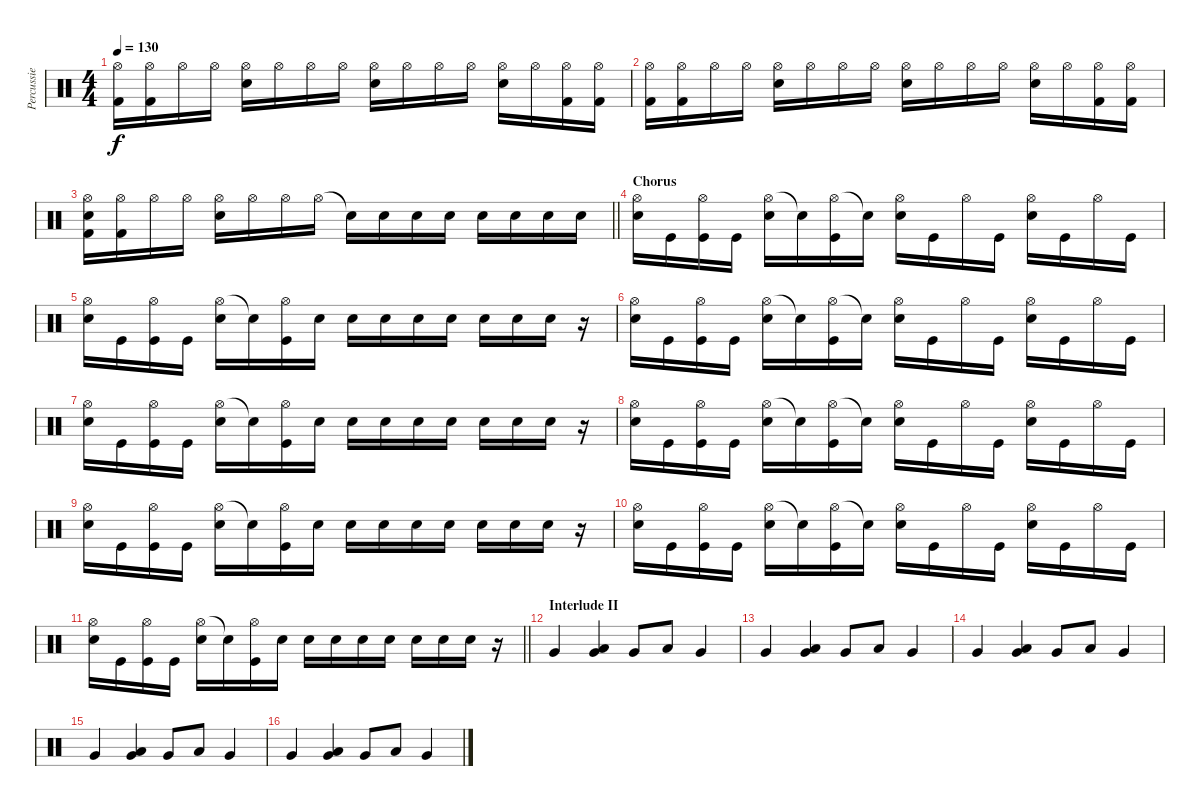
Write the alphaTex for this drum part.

\track ("Percussie" "Percussie") {instrument percussion}
\staff {score}
\articulation defaults
\ts (4 4)
\tempo 130
\clef neutral
\ks c
("Hi-Hat (open)" "Kick (hit) 2").16{dy f} ("Hi-Hat (open)" "Kick (hit) 2").16 "Hi-Hat (open)".16 "Hi-Hat (open)".16 ("Hi-Hat (open)" "Electric Snare (hit)").16 "Hi-Hat (open)".16 "Hi-Hat (open)".16 "Hi-Hat (open)".16 ("Hi-Hat (open)" "Electric Snare (hit)").16 "Hi-Hat (open)".16 "Hi-Hat (open)".16 "Hi-Hat (open)".16 ("Hi-Hat (open)" "Electric Snare (hit)").16 "Hi-Hat (open)".16 ("Hi-Hat (open)" "Kick (hit) 2").16 ("Hi-Hat (open)" "Kick (hit) 2").16 |
("Hi-Hat (open)" "Kick (hit) 2").16 ("Hi-Hat (open)" "Kick (hit) 2").16 "Hi-Hat (open)".16 "Hi-Hat (open)".16 ("Hi-Hat (open)" "Electric Snare (hit)").16 "Hi-Hat (open)".16 "Hi-Hat (open)".16 "Hi-Hat (open)".16 ("Hi-Hat (open)" "Electric Snare (hit)").16 "Hi-Hat (open)".16 "Hi-Hat (open)".16 "Hi-Hat (open)".16 ("Hi-Hat (open)" "Electric Snare (hit)").16 "Hi-Hat (open)".16 ("Hi-Hat (open)" "Kick (hit) 2").16 ("Hi-Hat (open)" "Kick (hit) 2").16 |
\barLineRight lightlight
("Hi-Hat (open)" "Electric Snare (hit)" "Kick (hit) 2").16 ("Hi-Hat (open)" "Kick (hit) 2").16 "Hi-Hat (open)".16 "Hi-Hat (open)".16 ("Hi-Hat (open)" "Electric Snare (hit)").16 "Hi-Hat (open)".16 "Hi-Hat (open)".16 "Hi-Hat (open)".16 "Snare (hit)"{t}.16 "Electric Snare (hit)".16 "Electric Snare (hit)".16 "Electric Snare (hit)".16 "Electric Snare (hit)".16 "Electric Snare (hit)".16 "Electric Snare (hit)".16 "Electric Snare (hit)".16 |
\section ("" "Chorus")
("Hi-Hat (open)" "Snare (hit) 2").16 "Kick (hit)".16 ("Hi-Hat (open)" "Kick (hit)").16 "Kick (hit)".16 ("Hi-Hat (open)" "Snare (hit) 2").16 "Snare (hit)"{t}.16 ("Hi-Hat (open)" "Kick (hit)").16 "Snare (hit)"{t}.16 ("Hi-Hat (open)" "Snare (hit) 2").16 "Kick (hit)".16 "Hi-Hat (open)".16 "Kick (hit)".16 ("Hi-Hat (open)" "Snare (hit) 2").16 "Kick (hit)".16 "Hi-Hat (open)".16 "Kick (hit)".16 |
("Hi-Hat (open)" "Snare (hit) 2").16 "Kick (hit)".16 ("Hi-Hat (open)" "Kick (hit)").16 "Kick (hit)".16 ("Hi-Hat (open)" "Snare (hit) 2").16 "Snare (hit)"{t}.16 ("Hi-Hat (open)" "Kick (hit)").16 "Snare (hit) 2".16 "Snare (hit) 2".16 "Snare (hit) 2".16 "Snare (hit) 2".16 "Snare (hit) 2".16 "Snare (hit) 2".16 "Snare (hit) 2".16 "Snare (hit) 2".16 r.16 |
("Hi-Hat (open)" "Snare (hit) 2").16 "Kick (hit)".16 ("Hi-Hat (open)" "Kick (hit)").16 "Kick (hit)".16 ("Hi-Hat (open)" "Snare (hit) 2").16 "Snare (hit)"{t}.16 ("Hi-Hat (open)" "Kick (hit)").16 "Snare (hit)"{t}.16 ("Hi-Hat (open)" "Snare (hit) 2").16 "Kick (hit)".16 "Hi-Hat (open)".16 "Kick (hit)".16 ("Hi-Hat (open)" "Snare (hit) 2").16 "Kick (hit)".16 "Hi-Hat (open)".16 "Kick (hit)".16 |
("Hi-Hat (open)" "Snare (hit) 2").16 "Kick (hit)".16 ("Hi-Hat (open)" "Kick (hit)").16 "Kick (hit)".16 ("Hi-Hat (open)" "Snare (hit) 2").16 "Snare (hit)"{t}.16 ("Hi-Hat (open)" "Kick (hit)").16 "Snare (hit) 2".16 "Snare (hit) 2".16 "Snare (hit) 2".16 "Snare (hit) 2".16 "Snare (hit) 2".16 "Snare (hit) 2".16 "Snare (hit) 2".16 "Snare (hit) 2".16 r.16 |
("Hi-Hat (open)" "Snare (hit) 2").16 "Kick (hit)".16 ("Hi-Hat (open)" "Kick (hit)").16 "Kick (hit)".16 ("Hi-Hat (open)" "Snare (hit) 2").16 "Snare (hit)"{t}.16 ("Hi-Hat (open)" "Kick (hit)").16 "Snare (hit)"{t}.16 ("Hi-Hat (open)" "Snare (hit) 2").16 "Kick (hit)".16 "Hi-Hat (open)".16 "Kick (hit)".16 ("Hi-Hat (open)" "Snare (hit) 2").16 "Kick (hit)".16 "Hi-Hat (open)".16 "Kick (hit)".16 |
("Hi-Hat (open)" "Snare (hit) 2").16 "Kick (hit)".16 ("Hi-Hat (open)" "Kick (hit)").16 "Kick (hit)".16 ("Hi-Hat (open)" "Snare (hit) 2").16 "Snare (hit)"{t}.16 ("Hi-Hat (open)" "Kick (hit)").16 "Snare (hit) 2".16 "Snare (hit) 2".16 "Snare (hit) 2".16 "Snare (hit) 2".16 "Snare (hit) 2".16 "Snare (hit) 2".16 "Snare (hit) 2".16 "Snare (hit) 2".16 r.16 |
("Hi-Hat (open)" "Snare (hit) 2").16 "Kick (hit)".16 ("Hi-Hat (open)" "Kick (hit)").16 "Kick (hit)".16 ("Hi-Hat (open)" "Snare (hit) 2").16 "Snare (hit)"{t}.16 ("Hi-Hat (open)" "Kick (hit)").16 "Snare (hit)"{t}.16 ("Hi-Hat (open)" "Snare (hit) 2").16 "Kick (hit)".16 "Hi-Hat (open)".16 "Kick (hit)".16 ("Hi-Hat (open)" "Snare (hit) 2").16 "Kick (hit)".16 "Hi-Hat (open)".16 "Kick (hit)".16 |
\barLineRight lightlight
("Hi-Hat (open)" "Snare (hit) 2").16 "Kick (hit)".16 ("Hi-Hat (open)" "Kick (hit)").16 "Kick (hit)".16 ("Hi-Hat (open)" "Snare (hit) 2").16 "Snare (hit)"{t}.16 ("Hi-Hat (open)" "Kick (hit)").16 "Snare (hit) 2".16 "Snare (hit) 2".16 "Snare (hit) 2".16 "Snare (hit) 2".16 "Snare (hit) 2".16 "Snare (hit) 2".16 "Snare (hit) 2".16 "Snare (hit) 2".16 r.16 |
\section ("" "Interlude II")
"Very Low Tom (hit)".4 ("Very Low Tom (hit)" "Low Floor Tom (hit)").4 "Very Low Tom (hit)".8 "Low Floor Tom (hit)".8 "Very Low Tom (hit)".4 |
"Very Low Tom (hit)".4 ("Very Low Tom (hit)" "Low Floor Tom (hit)").4 "Very Low Tom (hit)".8 "Low Floor Tom (hit)".8 "Very Low Tom (hit)".4 |
"Very Low Tom (hit)".4 ("Very Low Tom (hit)" "Low Floor Tom (hit)").4 "Very Low Tom (hit)".8 "Low Floor Tom (hit)".8 "Very Low Tom (hit)".4 |
"Very Low Tom (hit)".4 ("Very Low Tom (hit)" "Low Floor Tom (hit)").4 "Very Low Tom (hit)".8 "Low Floor Tom (hit)".8 "Very Low Tom (hit)".4 |
"Very Low Tom (hit)".4 ("Very Low Tom (hit)" "Low Floor Tom (hit)").4 "Very Low Tom (hit)".8 "Low Floor Tom (hit)".8 "Very Low Tom (hit)".4
